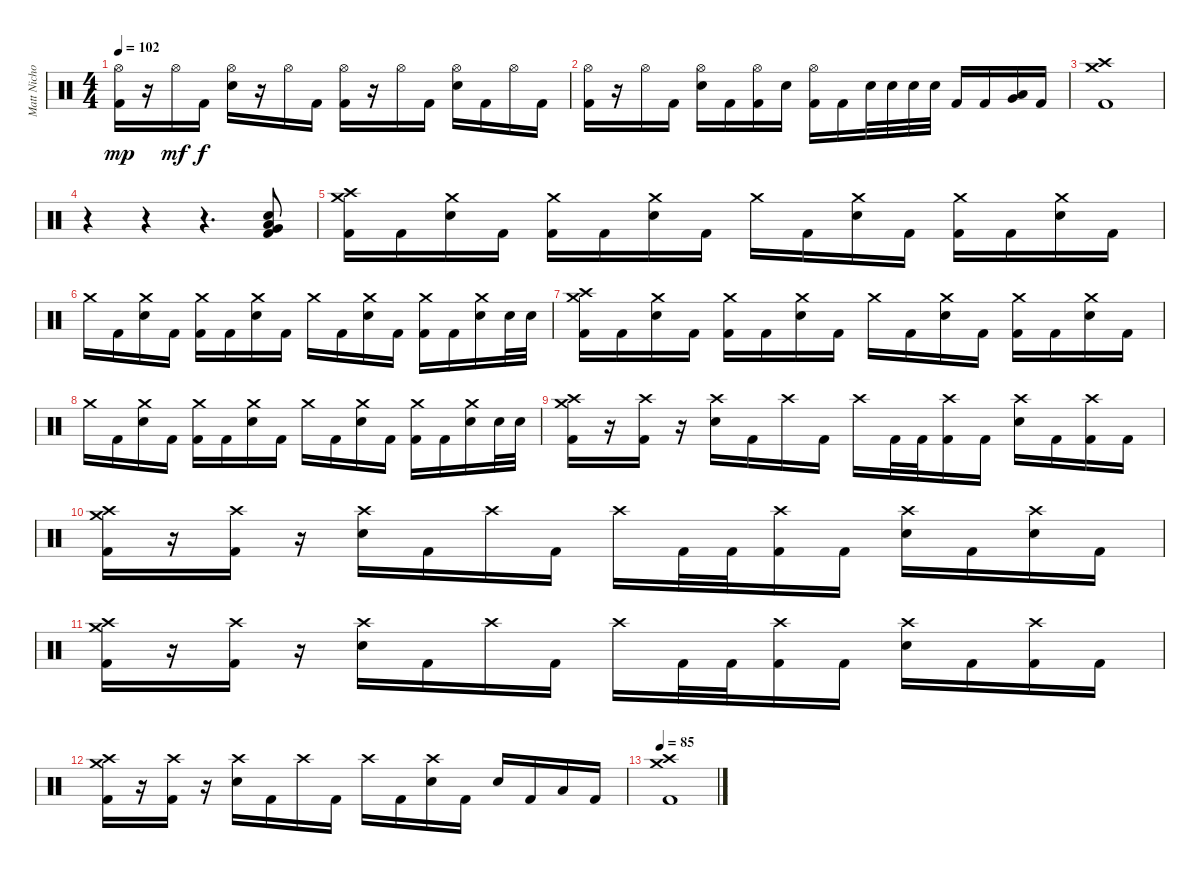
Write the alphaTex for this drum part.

\track ("Matt Nichols" "Matt Nicho") {instrument percussion}
\staff {score}
\articulation defaults
\ts (4 4)
\tempo 102
\clef neutral
\ks c
("Hi-Hat (open)" "Kick (hit) 2").16{dy mp} r.16 "Hi-Hat (open)".16{dy mf} "Kick (hit) 2".16{dy f} ("Hi-Hat (open)" "Electric Snare (hit)").16 r.16 "Hi-Hat (open)".16 "Kick (hit) 2".16 ("Hi-Hat (open)" "Kick (hit) 2").16 r.16 "Hi-Hat (open)".16 "Kick (hit) 2".16 ("Hi-Hat (open)" "Electric Snare (hit)").16 "Kick (hit) 2".16 "Hi-Hat (open)".16 "Kick (hit) 2".16 |
("Hi-Hat (open)" "Kick (hit) 2").16 r.16 "Hi-Hat (open)".16 "Kick (hit) 2".16 ("Hi-Hat (open)" "Electric Snare (hit)").16 "Kick (hit) 2".16 ("Hi-Hat (open)" "Kick (hit) 2").16 "Electric Snare (hit)".16 ("Hi-Hat (open)" "Kick (hit) 2").16 "Kick (hit) 2".16 "Electric Snare (hit)".32 "Electric Snare (hit)".32 "Electric Snare (hit)".32 "Electric Snare (hit)".32 "Kick (hit) 2".16 "Kick (hit) 2".16 ("Very Low Tom (hit)" "Low Tom (hit)").16 "Kick (hit) 2".16 |
("Crash high (hit)" "Crash medium (hit)" "Kick (hit) 2").1 |
r.4 r.4 r.4{d} ("Very Low Tom (hit)" "Low Tom (hit)" "Electric Snare (hit)" "Kick (hit) 2").8 |
("Crash high (hit)" "Crash medium (hit)" "Kick (hit) 2").16 "Kick (hit) 2".16 ("Crash medium (hit)" "Electric Snare (hit)").16 "Kick (hit) 2".16 ("Crash medium (hit)" "Kick (hit) 2").16 "Kick (hit) 2".16 ("Crash medium (hit)" "Electric Snare (hit)").16 "Kick (hit) 2".16 "Crash medium (hit)".16 "Kick (hit) 2".16 ("Crash medium (hit)" "Electric Snare (hit)").16 "Kick (hit) 2".16 ("Crash medium (hit)" "Kick (hit) 2").16 "Kick (hit) 2".16 ("Crash medium (hit)" "Electric Snare (hit)").16 "Kick (hit) 2".16 |
"Crash medium (hit)".16 "Kick (hit) 2".16 ("Crash medium (hit)" "Electric Snare (hit)").16 "Kick (hit) 2".16 ("Crash medium (hit)" "Kick (hit) 2").16 "Kick (hit) 2".16 ("Crash medium (hit)" "Electric Snare (hit)").16 "Kick (hit) 2".16 "Crash medium (hit)".16 "Kick (hit) 2".16 ("Crash medium (hit)" "Electric Snare (hit)").16 "Kick (hit) 2".16 ("Crash medium (hit)" "Kick (hit) 2").16 "Kick (hit) 2".16 ("Crash medium (hit)" "Electric Snare (hit)").16 "Electric Snare (hit)".32 "Electric Snare (hit)".32 |
("Crash high (hit)" "Crash medium (hit)" "Kick (hit) 2").16 "Kick (hit) 2".16 ("Crash medium (hit)" "Electric Snare (hit)").16 "Kick (hit) 2".16 ("Crash medium (hit)" "Kick (hit) 2").16 "Kick (hit) 2".16 ("Crash medium (hit)" "Electric Snare (hit)").16 "Kick (hit) 2".16 "Crash medium (hit)".16 "Kick (hit) 2".16 ("Crash medium (hit)" "Electric Snare (hit)").16 "Kick (hit) 2".16 ("Crash medium (hit)" "Kick (hit) 2").16 "Kick (hit) 2".16 ("Crash medium (hit)" "Electric Snare (hit)").16 "Kick (hit) 2".16 |
"Crash medium (hit)".16 "Kick (hit) 2".16 ("Crash medium (hit)" "Electric Snare (hit)").16 "Kick (hit) 2".16 ("Crash medium (hit)" "Kick (hit) 2").16 "Kick (hit) 2".16 ("Crash medium (hit)" "Electric Snare (hit)").16 "Kick (hit) 2".16 "Crash medium (hit)".16 "Kick (hit) 2".16 ("Crash medium (hit)" "Electric Snare (hit)").16 "Kick (hit) 2".16 ("Crash medium (hit)" "Kick (hit) 2").16 "Kick (hit) 2".16 ("Crash medium (hit)" "Electric Snare (hit)").16 "Electric Snare (hit)".32 "Electric Snare (hit)".32 |
("Crash high (hit)" "Crash medium (hit)" "Kick (hit) 2").16 r.16 ("Crash high (hit)" "Kick (hit) 2").16 r.16 ("Crash high (hit)" "Electric Snare (hit)").16 "Kick (hit) 2".16 "Crash high (hit)".16 "Kick (hit) 2".16 "Crash high (hit)".16 "Kick (hit) 2".32 "Kick (hit) 2".32 ("Crash high (hit)" "Kick (hit) 2").16 "Kick (hit) 2".16 ("Crash high (hit)" "Electric Snare (hit)").16 "Kick (hit) 2".16 ("Crash high (hit)" "Kick (hit) 2").16 "Kick (hit) 2".16 |
("Crash high (hit)" "Crash medium (hit)" "Kick (hit) 2").16 r.16 ("Crash high (hit)" "Kick (hit) 2").16 r.16 ("Crash high (hit)" "Electric Snare (hit)").16 "Kick (hit) 2".16 "Crash high (hit)".16 "Kick (hit) 2".16 "Crash high (hit)".16 "Kick (hit) 2".32 "Kick (hit) 2".32 ("Crash high (hit)" "Kick (hit) 2").16 "Kick (hit) 2".16 ("Crash high (hit)" "Electric Snare (hit)").16 "Kick (hit) 2".16 ("Crash high (hit)" "Electric Snare (hit)").16 "Kick (hit) 2".16 |
("Crash high (hit)" "Crash medium (hit)" "Kick (hit) 2").16 r.16 ("Crash high (hit)" "Kick (hit) 2").16 r.16 ("Crash high (hit)" "Electric Snare (hit)").16 "Kick (hit) 2".16 "Crash high (hit)".16 "Kick (hit) 2".16 "Crash high (hit)".16 "Kick (hit) 2".32 "Kick (hit) 2".32 ("Crash high (hit)" "Kick (hit) 2").16 "Kick (hit) 2".16 ("Crash high (hit)" "Electric Snare (hit)").16 "Kick (hit) 2".16 ("Crash high (hit)" "Kick (hit) 2").16 "Kick (hit) 2".16 |
("Crash high (hit)" "Crash medium (hit)" "Kick (hit) 2").16 r.16 ("Crash high (hit)" "Kick (hit) 2").16 r.16 ("Crash high (hit)" "Electric Snare (hit)").16 "Kick (hit) 2".16 "Crash high (hit)".16 "Kick (hit) 2".16 "Crash high (hit)".16 "Kick (hit) 2".16 ("Crash high (hit)" "Electric Snare (hit)").16 "Kick (hit) 2".16 "Electric Snare (hit)".16 "Kick (hit) 2".16 "Low Tom (hit)".16 "Kick (hit) 2".16 |
\tempo 85
("Crash medium (hit)" "Crash high (hit)" "Kick (hit) 2").1
